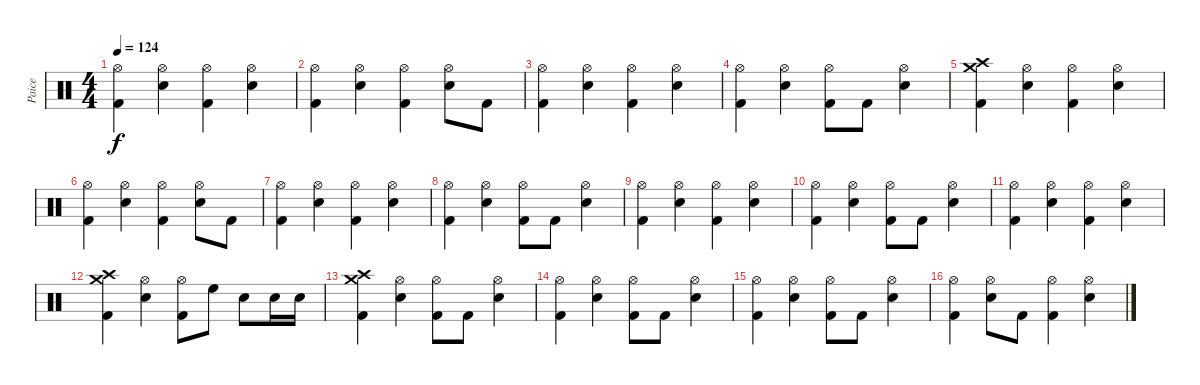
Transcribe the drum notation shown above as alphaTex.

\track ("Paice" "Paice") {instrument percussion}
\staff {score}
\articulation defaults
\ts (4 4)
\tempo 124
\clef neutral
\ks c
("Hi-Hat (open)" "Kick (hit) 2").4{dy f} ("Hi-Hat (open)" "Electric Snare (hit)").4 ("Hi-Hat (open)" "Kick (hit) 2").4 ("Hi-Hat (open)" "Electric Snare (hit)").4 |
("Hi-Hat (open)" "Kick (hit) 2").4 ("Hi-Hat (open)" "Electric Snare (hit)").4 ("Hi-Hat (open)" "Kick (hit) 2").4 ("Hi-Hat (open)" "Electric Snare (hit)").8 "Kick (hit) 2".8 |
("Hi-Hat (open)" "Kick (hit) 2").4 ("Hi-Hat (open)" "Electric Snare (hit)").4 ("Hi-Hat (open)" "Kick (hit) 2").4 ("Hi-Hat (open)" "Electric Snare (hit)").4 |
("Hi-Hat (open)" "Kick (hit) 2").4 ("Hi-Hat (open)" "Electric Snare (hit)").4 ("Hi-Hat (open)" "Kick (hit) 2").8 "Kick (hit) 2".8 ("Hi-Hat (open)" "Electric Snare (hit)").4 |
("Crash high (hit)" "Crash medium (hit)" "Kick (hit) 2").4 ("Hi-Hat (open)" "Electric Snare (hit)").4 ("Hi-Hat (open)" "Kick (hit) 2").4 ("Hi-Hat (open)" "Electric Snare (hit)").4 |
("Hi-Hat (open)" "Kick (hit) 2").4 ("Hi-Hat (open)" "Electric Snare (hit)").4 ("Hi-Hat (open)" "Kick (hit) 2").4 ("Hi-Hat (open)" "Electric Snare (hit)").8 "Kick (hit) 2".8 |
("Hi-Hat (open)" "Kick (hit) 2").4 ("Hi-Hat (open)" "Electric Snare (hit)").4 ("Hi-Hat (open)" "Kick (hit) 2").4 ("Hi-Hat (open)" "Electric Snare (hit)").4 |
("Hi-Hat (open)" "Kick (hit) 2").4 ("Hi-Hat (open)" "Electric Snare (hit)").4 ("Hi-Hat (open)" "Kick (hit) 2").8 "Kick (hit) 2".8 ("Hi-Hat (open)" "Electric Snare (hit)").4 |
("Hi-Hat (open)" "Kick (hit) 2").4 ("Hi-Hat (open)" "Electric Snare (hit)").4 ("Hi-Hat (open)" "Kick (hit) 2").4 ("Hi-Hat (open)" "Electric Snare (hit)").4 |
("Hi-Hat (open)" "Kick (hit) 2").4 ("Hi-Hat (open)" "Electric Snare (hit)").4 ("Hi-Hat (open)" "Kick (hit) 2").8 "Kick (hit) 2".8 ("Hi-Hat (open)" "Electric Snare (hit)").4 |
("Hi-Hat (open)" "Kick (hit) 2").4 ("Hi-Hat (open)" "Electric Snare (hit)").4 ("Hi-Hat (open)" "Kick (hit) 2").4 ("Hi-Hat (open)" "Electric Snare (hit)").4 |
("Crash high (hit)" "Crash medium (hit)" "Kick (hit) 2").4 ("Hi-Hat (open)" "Electric Snare (hit)").4 ("Hi-Hat (open)" "Kick (hit) 2").8 "High Floor Tom (hit)".8 "Electric Snare (hit)".8 "Electric Snare (hit)".16 "Electric Snare (hit)".16 |
("Crash high (hit)" "Crash medium (hit)" "Kick (hit) 2").4 ("Hi-Hat (open)" "Electric Snare (hit)").4 ("Hi-Hat (open)" "Kick (hit) 2").8 "Kick (hit) 2".8 ("Hi-Hat (open)" "Electric Snare (hit)").4 |
("Hi-Hat (open)" "Kick (hit) 2").4 ("Hi-Hat (open)" "Electric Snare (hit)").4 ("Hi-Hat (open)" "Kick (hit) 2").8 "Kick (hit) 2".8 ("Hi-Hat (open)" "Electric Snare (hit)").4 |
("Hi-Hat (open)" "Kick (hit) 2").4 ("Hi-Hat (open)" "Electric Snare (hit)").4 ("Hi-Hat (open)" "Kick (hit) 2").8 "Kick (hit) 2".8 ("Hi-Hat (open)" "Electric Snare (hit)").4 |
("Hi-Hat (open)" "Kick (hit) 2").4 ("Hi-Hat (open)" "Electric Snare (hit)").8 "Kick (hit) 2".8 ("Hi-Hat (open)" "Kick (hit) 2").4 ("Hi-Hat (open)" "Electric Snare (hit)").4
